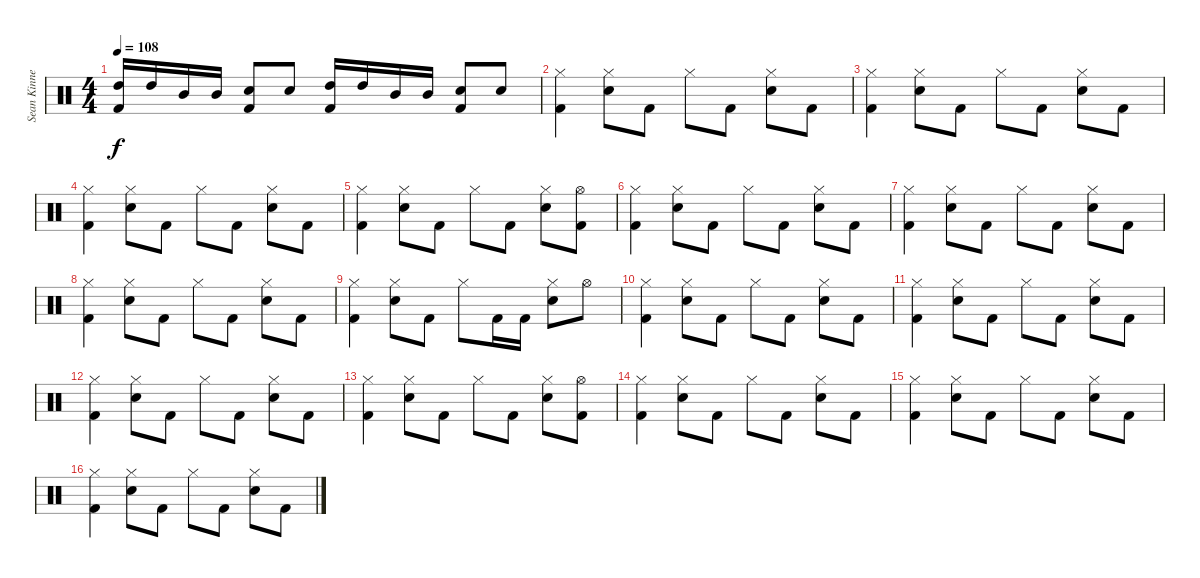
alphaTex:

\track ("Sean Kinney- Drums" "Sean Kinne") {instrument percussion}
\staff {score}
\articulation defaults
\ts (4 4)
\tempo 108
\clef neutral
\ks c
("High Tom (hit)" "Kick (hit) 2").16{dy f} "High Tom (hit)".16 "Mid Tom (hit)".16 "Mid Tom (hit)".16 ("Electric Snare (hit)" "Kick (hit) 2").8 "Electric Snare (hit)".8 ("High Tom (hit)" "Kick (hit) 2").16 "High Tom (hit)".16 "Mid Tom (hit)".16 "Mid Tom (hit)".16 ("Electric Snare (hit)" "Kick (hit) 2").8 "Electric Snare (hit)".8 |
("Hi-Hat (closed)" "Kick (hit) 2").4 ("Hi-Hat (closed)" "Electric Snare (hit)").8 "Kick (hit) 2".8 "Hi-Hat (closed)".8 "Kick (hit) 2".8 ("Hi-Hat (closed)" "Electric Snare (hit)").8 "Kick (hit) 2".8 |
("Hi-Hat (closed)" "Kick (hit) 2").4 ("Hi-Hat (closed)" "Electric Snare (hit)").8 "Kick (hit) 2".8 "Hi-Hat (closed)".8 "Kick (hit) 2".8 ("Hi-Hat (closed)" "Electric Snare (hit)").8 "Kick (hit) 2".8 |
("Hi-Hat (closed)" "Kick (hit) 2").4 ("Hi-Hat (closed)" "Electric Snare (hit)").8 "Kick (hit) 2".8 "Hi-Hat (closed)".8 "Kick (hit) 2".8 ("Hi-Hat (closed)" "Electric Snare (hit)").8 "Kick (hit) 2".8 |
("Hi-Hat (closed)" "Kick (hit) 2").4 ("Hi-Hat (closed)" "Electric Snare (hit)").8 "Kick (hit) 2".8 "Hi-Hat (closed)".8 "Kick (hit) 2".8 ("Hi-Hat (closed)" "Electric Snare (hit)").8 ("Hi-Hat (open)" "Kick (hit) 2").8 |
("Hi-Hat (closed)" "Kick (hit) 2").4 ("Hi-Hat (closed)" "Electric Snare (hit)").8 "Kick (hit) 2".8 "Hi-Hat (closed)".8 "Kick (hit) 2".8 ("Hi-Hat (closed)" "Electric Snare (hit)").8 "Kick (hit) 2".8 |
("Hi-Hat (closed)" "Kick (hit) 2").4 ("Hi-Hat (closed)" "Electric Snare (hit)").8 "Kick (hit) 2".8 "Hi-Hat (closed)".8 "Kick (hit) 2".8 ("Hi-Hat (closed)" "Electric Snare (hit)").8 "Kick (hit) 2".8 |
("Hi-Hat (closed)" "Kick (hit) 2").4 ("Hi-Hat (closed)" "Electric Snare (hit)").8 "Kick (hit) 2".8 "Hi-Hat (closed)".8 "Kick (hit) 2".8 ("Hi-Hat (closed)" "Electric Snare (hit)").8 "Kick (hit) 2".8 |
("Hi-Hat (closed)" "Kick (hit) 2").4 ("Hi-Hat (closed)" "Electric Snare (hit)").8 "Kick (hit) 2".8 "Hi-Hat (closed)".8 "Kick (hit) 2".16 "Kick (hit) 2".16 ("Hi-Hat (closed)" "Electric Snare (hit)").8 "Hi-Hat (open)".8 |
("Hi-Hat (closed)" "Kick (hit) 2").4 ("Hi-Hat (closed)" "Electric Snare (hit)").8 "Kick (hit) 2".8 "Hi-Hat (closed)".8 "Kick (hit) 2".8 ("Hi-Hat (closed)" "Electric Snare (hit)").8 "Kick (hit) 2".8 |
("Hi-Hat (closed)" "Kick (hit) 2").4 ("Hi-Hat (closed)" "Electric Snare (hit)").8 "Kick (hit) 2".8 "Hi-Hat (closed)".8 "Kick (hit) 2".8 ("Hi-Hat (closed)" "Electric Snare (hit)").8 "Kick (hit) 2".8 |
("Hi-Hat (closed)" "Kick (hit) 2").4 ("Hi-Hat (closed)" "Electric Snare (hit)").8 "Kick (hit) 2".8 "Hi-Hat (closed)".8 "Kick (hit) 2".8 ("Hi-Hat (closed)" "Electric Snare (hit)").8 "Kick (hit) 2".8 |
("Hi-Hat (closed)" "Kick (hit) 2").4 ("Hi-Hat (closed)" "Electric Snare (hit)").8 "Kick (hit) 2".8 "Hi-Hat (closed)".8 "Kick (hit) 2".8 ("Hi-Hat (closed)" "Electric Snare (hit)").8 ("Hi-Hat (open)" "Kick (hit) 2").8 |
("Hi-Hat (closed)" "Kick (hit) 2").4 ("Hi-Hat (closed)" "Electric Snare (hit)").8 "Kick (hit) 2".8 "Hi-Hat (closed)".8 "Kick (hit) 2".8 ("Hi-Hat (closed)" "Electric Snare (hit)").8 "Kick (hit) 2".8 |
("Hi-Hat (closed)" "Kick (hit) 2").4 ("Hi-Hat (closed)" "Electric Snare (hit)").8 "Kick (hit) 2".8 "Hi-Hat (closed)".8 "Kick (hit) 2".8 ("Hi-Hat (closed)" "Electric Snare (hit)").8 "Kick (hit) 2".8 |
("Hi-Hat (closed)" "Kick (hit) 2").4 ("Hi-Hat (closed)" "Electric Snare (hit)").8 "Kick (hit) 2".8 "Hi-Hat (closed)".8 "Kick (hit) 2".8 ("Hi-Hat (closed)" "Electric Snare (hit)").8 "Kick (hit) 2".8
